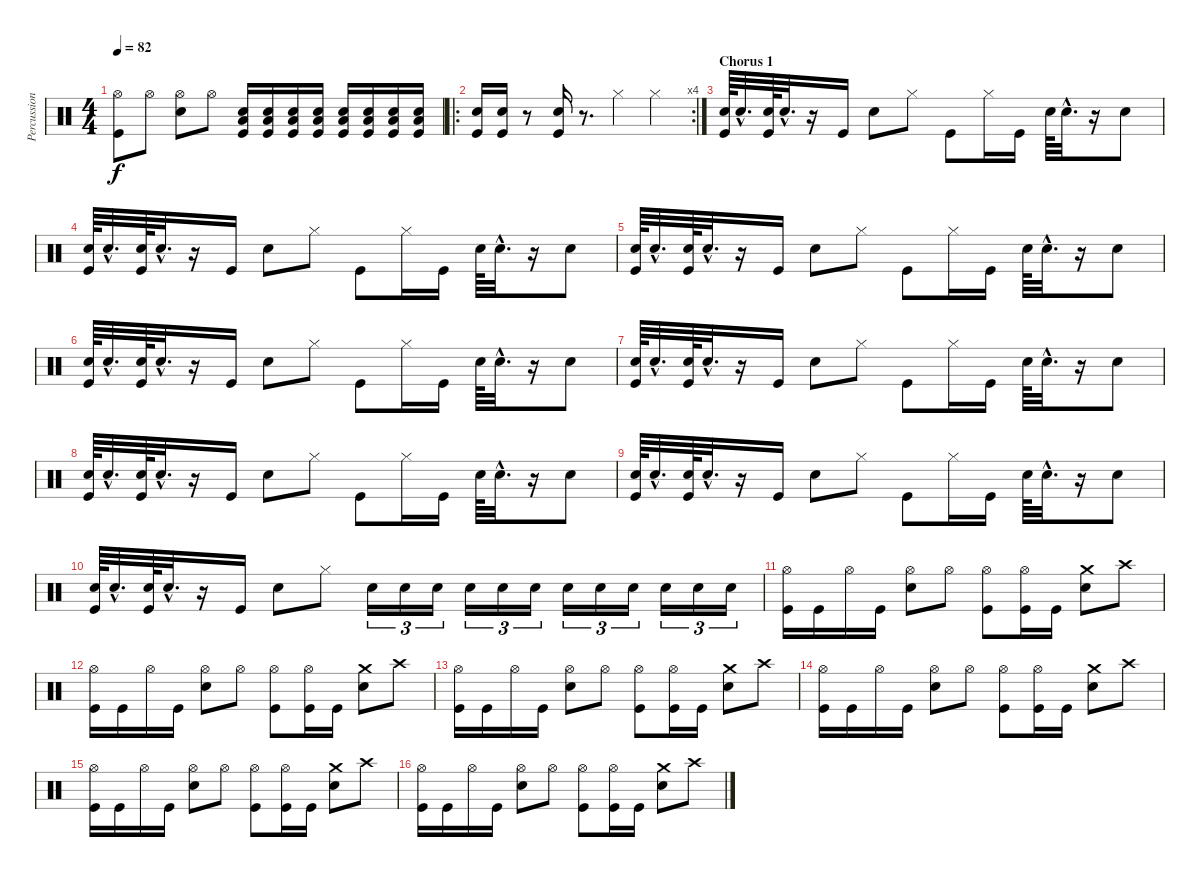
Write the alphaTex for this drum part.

\track ("Percussion" "Percussion") {instrument percussion}
\staff {score}
\articulation defaults
\ts (4 4)
\tempo 82
\clef neutral
\ks c
("Hi-Hat (open)" "Kick (hit)").8{dy f} "Hi-Hat (open)".8 ("Hi-Hat (open)" "Snare (hit) 2").8 "Hi-Hat (open)".8 ("Snare (hit) 2" "Low Floor Tom (hit)" "Kick (hit)").16 ("Snare (hit) 2" "Low Floor Tom (hit)" "Kick (hit)").16 ("Snare (hit) 2" "Low Floor Tom (hit)" "Kick (hit)").16 ("Snare (hit) 2" "Low Floor Tom (hit)" "Kick (hit)").16 ("Snare (hit) 2" "Low Floor Tom (hit)" "Kick (hit)").16 ("Snare (hit) 2" "Low Floor Tom (hit)" "Kick (hit)").16 ("Snare (hit) 2" "Low Floor Tom (hit)" "Kick (hit)").16 ("Snare (hit) 2" "Low Floor Tom (hit)" "Kick (hit)").16 |
\ro
\rc 4
("Snare (hit) 2" "Kick (hit)").16 ("Snare (hit) 2" "Kick (hit)").16 r.8 ("Snare (hit) 2" "Kick (hit)").16 r.8{d} "Hi-Hat (closed)".4 "Hi-Hat (closed)".4 |
\section ("" "Chorus 1")
("Snare (hit) 2" "Kick (hit)").64 "Snare (hit) 2"{hac}.32{d} ("Snare (hit) 2" "Kick (hit)").64 "Snare (hit) 2"{hac}.32{d} r.16 "Kick (hit)".16 "Snare (hit) 2".8 "Hi-Hat (closed)".8 "Kick (hit)".8 "Hi-Hat (closed)".16 "Kick (hit)".16 "Snare (hit) 2".64 "Snare (hit) 2"{hac}.32{d} r.16 "Snare (hit) 2".8 |
("Snare (hit) 2" "Kick (hit)").64 "Snare (hit) 2"{hac}.32{d} ("Snare (hit) 2" "Kick (hit)").64 "Snare (hit) 2"{hac}.32{d} r.16 "Kick (hit)".16 "Snare (hit) 2".8 "Hi-Hat (closed)".8 "Kick (hit)".8 "Hi-Hat (closed)".16 "Kick (hit)".16 "Snare (hit) 2".64 "Snare (hit) 2"{hac}.32{d} r.16 "Snare (hit) 2".8 |
("Snare (hit) 2" "Kick (hit)").64 "Snare (hit) 2"{hac}.32{d} ("Snare (hit) 2" "Kick (hit)").64 "Snare (hit) 2"{hac}.32{d} r.16 "Kick (hit)".16 "Snare (hit) 2".8 "Hi-Hat (closed)".8 "Kick (hit)".8 "Hi-Hat (closed)".16 "Kick (hit)".16 "Snare (hit) 2".64 "Snare (hit) 2"{hac}.32{d} r.16 "Snare (hit) 2".8 |
("Snare (hit) 2" "Kick (hit)").64 "Snare (hit) 2"{hac}.32{d} ("Snare (hit) 2" "Kick (hit)").64 "Snare (hit) 2"{hac}.32{d} r.16 "Kick (hit)".16 "Snare (hit) 2".8 "Hi-Hat (closed)".8 "Kick (hit)".8 "Hi-Hat (closed)".16 "Kick (hit)".16 "Snare (hit) 2".64 "Snare (hit) 2"{hac}.32{d} r.16 "Snare (hit) 2".8 |
("Snare (hit) 2" "Kick (hit)").64 "Snare (hit) 2"{hac}.32{d} ("Snare (hit) 2" "Kick (hit)").64 "Snare (hit) 2"{hac}.32{d} r.16 "Kick (hit)".16 "Snare (hit) 2".8 "Hi-Hat (closed)".8 "Kick (hit)".8 "Hi-Hat (closed)".16 "Kick (hit)".16 "Snare (hit) 2".64 "Snare (hit) 2"{hac}.32{d} r.16 "Snare (hit) 2".8 |
("Snare (hit) 2" "Kick (hit)").64 "Snare (hit) 2"{hac}.32{d} ("Snare (hit) 2" "Kick (hit)").64 "Snare (hit) 2"{hac}.32{d} r.16 "Kick (hit)".16 "Snare (hit) 2".8 "Hi-Hat (closed)".8 "Kick (hit)".8 "Hi-Hat (closed)".16 "Kick (hit)".16 "Snare (hit) 2".64 "Snare (hit) 2"{hac}.32{d} r.16 "Snare (hit) 2".8 |
("Snare (hit) 2" "Kick (hit)").64 "Snare (hit) 2"{hac}.32{d} ("Snare (hit) 2" "Kick (hit)").64 "Snare (hit) 2"{hac}.32{d} r.16 "Kick (hit)".16 "Snare (hit) 2".8 "Hi-Hat (closed)".8 "Kick (hit)".8 "Hi-Hat (closed)".16 "Kick (hit)".16 "Snare (hit) 2".64 "Snare (hit) 2"{hac}.32{d} r.16 "Snare (hit) 2".8 |
("Snare (hit) 2" "Kick (hit)").64 "Snare (hit) 2"{hac}.32{d} ("Snare (hit) 2" "Kick (hit)").64 "Snare (hit) 2"{hac}.32{d} r.16 "Kick (hit)".16 "Snare (hit) 2".8 "Hi-Hat (closed)".8 "Snare (hit) 2".16{tu (3 2)} "Snare (hit) 2".16{tu (3 2)} "Snare (hit) 2".16{tu (3 2)} "Snare (hit) 2".16{tu (3 2)} "Snare (hit) 2".16{tu (3 2)} "Snare (hit) 2".16{tu (3 2)} "Snare (hit) 2".16{tu (3 2)} "Snare (hit) 2".16{tu (3 2)} "Snare (hit) 2".16{tu (3 2)} "Snare (hit) 2".16{tu (3 2)} "Snare (hit) 2".16{tu (3 2)} "Snare (hit) 2".16{tu (3 2)} |
("Hi-Hat (open)" "Kick (hit)").16 "Kick (hit)".16 "Hi-Hat (open)".16 "Kick (hit)".16 ("Hi-Hat (open)" "Snare (hit) 2").8 "Hi-Hat (open)".8 ("Hi-Hat (open)" "Kick (hit)").8 ("Hi-Hat (open)" "Kick (hit)").16 "Kick (hit)".16 ("Crash medium (hit)" "Snare (hit) 2").8 "Crash high (hit)".8 |
("Hi-Hat (open)" "Kick (hit)").16 "Kick (hit)".16 "Hi-Hat (open)".16 "Kick (hit)".16 ("Hi-Hat (open)" "Snare (hit) 2").8 "Hi-Hat (open)".8 ("Hi-Hat (open)" "Kick (hit)").8 ("Hi-Hat (open)" "Kick (hit)").16 "Kick (hit)".16 ("Crash medium (hit)" "Snare (hit) 2").8 "Crash high (hit)".8 |
("Hi-Hat (open)" "Kick (hit)").16 "Kick (hit)".16 "Hi-Hat (open)".16 "Kick (hit)".16 ("Hi-Hat (open)" "Snare (hit) 2").8 "Hi-Hat (open)".8 ("Hi-Hat (open)" "Kick (hit)").8 ("Hi-Hat (open)" "Kick (hit)").16 "Kick (hit)".16 ("Crash medium (hit)" "Snare (hit) 2").8 "Crash high (hit)".8 |
("Hi-Hat (open)" "Kick (hit)").16 "Kick (hit)".16 "Hi-Hat (open)".16 "Kick (hit)".16 ("Hi-Hat (open)" "Snare (hit) 2").8 "Hi-Hat (open)".8 ("Hi-Hat (open)" "Kick (hit)").8 ("Hi-Hat (open)" "Kick (hit)").16 "Kick (hit)".16 ("Crash medium (hit)" "Snare (hit) 2").8 "Crash high (hit)".8 |
("Hi-Hat (open)" "Kick (hit)").16 "Kick (hit)".16 "Hi-Hat (open)".16 "Kick (hit)".16 ("Hi-Hat (open)" "Snare (hit) 2").8 "Hi-Hat (open)".8 ("Hi-Hat (open)" "Kick (hit)").8 ("Hi-Hat (open)" "Kick (hit)").16 "Kick (hit)".16 ("Crash medium (hit)" "Snare (hit) 2").8 "Crash high (hit)".8 |
("Hi-Hat (open)" "Kick (hit)").16 "Kick (hit)".16 "Hi-Hat (open)".16 "Kick (hit)".16 ("Hi-Hat (open)" "Snare (hit) 2").8 "Hi-Hat (open)".8 ("Hi-Hat (open)" "Kick (hit)").8 ("Hi-Hat (open)" "Kick (hit)").16 "Kick (hit)".16 ("Crash medium (hit)" "Snare (hit) 2").8 "Crash high (hit)".8
